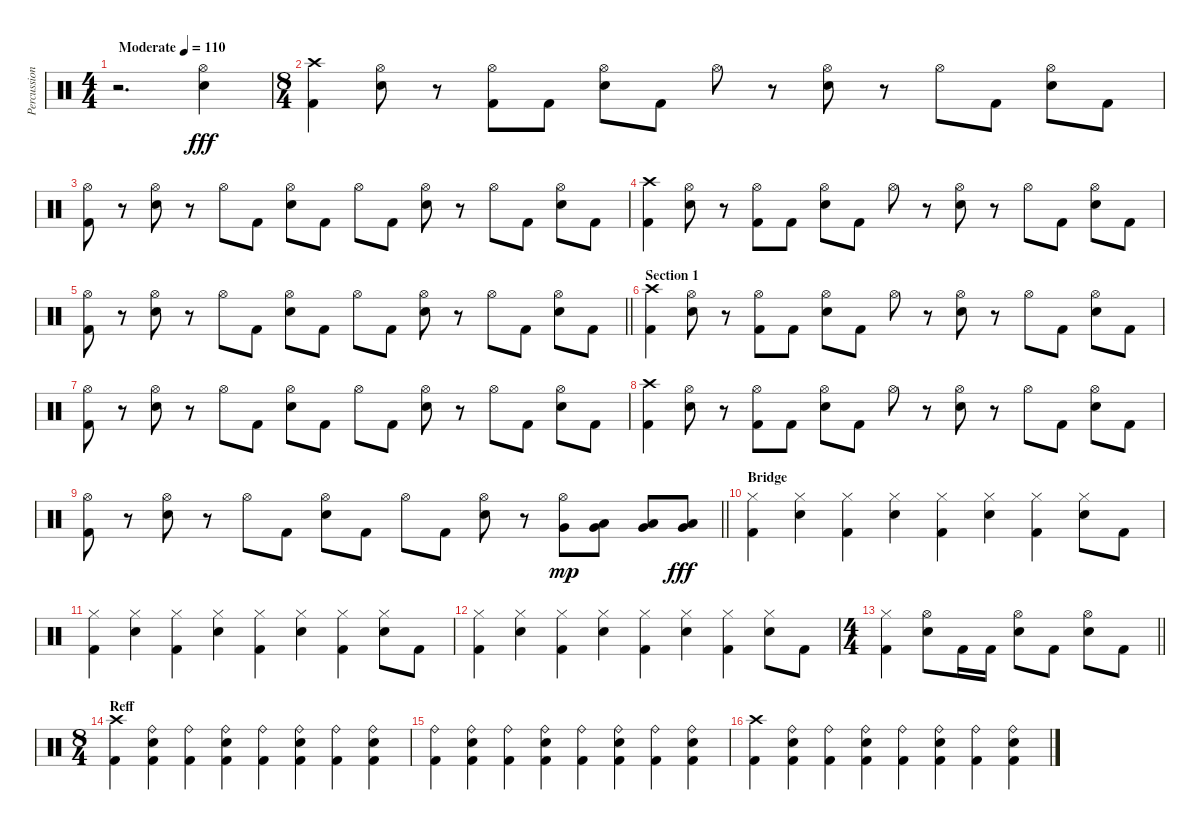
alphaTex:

\track ("Percussion" "Percussion") {instrument percussion}
\staff {score}
\articulation defaults
\ts (4 4)
\tempo (110 "Moderate")
\clef neutral
\ks c
r.2{d dy fff} ("Hi-Hat (open)" "Electric Snare (hit)").4 |
\ts (8 4)
("Crash high (hit)" "Kick (hit) 2").4 ("Hi-Hat (open)" "Electric Snare (hit)").8 r.8 ("Hi-Hat (open)" "Kick (hit) 2").8 "Kick (hit) 2".8 ("Hi-Hat (open)" "Electric Snare (hit)").8 "Kick (hit) 2".8 "Hi-Hat (open)".8 r.8 ("Hi-Hat (open)" "Electric Snare (hit)").8 r.8 "Hi-Hat (open)".8 "Kick (hit) 2".8 ("Hi-Hat (open)" "Electric Snare (hit)").8 "Kick (hit) 2".8 |
("Hi-Hat (open)" "Kick (hit) 2").8 r.8 ("Hi-Hat (open)" "Electric Snare (hit)").8 r.8 "Hi-Hat (open)".8 "Kick (hit) 2".8 ("Hi-Hat (open)" "Electric Snare (hit)").8 "Kick (hit) 2".8 "Hi-Hat (open)".8 "Kick (hit) 2".8 ("Hi-Hat (open)" "Electric Snare (hit)").8 r.8 "Hi-Hat (open)".8 "Kick (hit) 2".8 ("Hi-Hat (open)" "Electric Snare (hit)").8 "Kick (hit) 2".8 |
("Crash high (hit)" "Kick (hit) 2").4 ("Hi-Hat (open)" "Electric Snare (hit)").8 r.8 ("Hi-Hat (open)" "Kick (hit) 2").8 "Kick (hit) 2".8 ("Hi-Hat (open)" "Electric Snare (hit)").8 "Kick (hit) 2".8 "Hi-Hat (open)".8 r.8 ("Hi-Hat (open)" "Electric Snare (hit)").8 r.8 "Hi-Hat (open)".8 "Kick (hit) 2".8 ("Hi-Hat (open)" "Electric Snare (hit)").8 "Kick (hit) 2".8 |
\barLineRight lightlight
("Hi-Hat (open)" "Kick (hit) 2").8 r.8 ("Hi-Hat (open)" "Electric Snare (hit)").8 r.8 "Hi-Hat (open)".8 "Kick (hit) 2".8 ("Hi-Hat (open)" "Electric Snare (hit)").8 "Kick (hit) 2".8 "Hi-Hat (open)".8 "Kick (hit) 2".8 ("Hi-Hat (open)" "Electric Snare (hit)").8 r.8 "Hi-Hat (open)".8 "Kick (hit) 2".8 ("Hi-Hat (open)" "Electric Snare (hit)").8 "Kick (hit) 2".8 |
\section ("" "Section 1")
("Crash high (hit)" "Kick (hit) 2").4 ("Hi-Hat (open)" "Electric Snare (hit)").8 r.8 ("Hi-Hat (open)" "Kick (hit) 2").8 "Kick (hit) 2".8 ("Hi-Hat (open)" "Electric Snare (hit)").8 "Kick (hit) 2".8 "Hi-Hat (open)".8 r.8 ("Hi-Hat (open)" "Electric Snare (hit)").8 r.8 "Hi-Hat (open)".8 "Kick (hit) 2".8 ("Hi-Hat (open)" "Electric Snare (hit)").8 "Kick (hit) 2".8 |
("Hi-Hat (open)" "Kick (hit) 2").8 r.8 ("Hi-Hat (open)" "Electric Snare (hit)").8 r.8 "Hi-Hat (open)".8 "Kick (hit) 2".8 ("Hi-Hat (open)" "Electric Snare (hit)").8 "Kick (hit) 2".8 "Hi-Hat (open)".8 "Kick (hit) 2".8 ("Hi-Hat (open)" "Electric Snare (hit)").8 r.8 "Hi-Hat (open)".8 "Kick (hit) 2".8 ("Hi-Hat (open)" "Electric Snare (hit)").8 "Kick (hit) 2".8 |
("Crash high (hit)" "Kick (hit) 2").4 ("Hi-Hat (open)" "Electric Snare (hit)").8 r.8 ("Hi-Hat (open)" "Kick (hit) 2").8 "Kick (hit) 2".8 ("Hi-Hat (open)" "Electric Snare (hit)").8 "Kick (hit) 2".8 "Hi-Hat (open)".8 r.8 ("Hi-Hat (open)" "Electric Snare (hit)").8 r.8 "Hi-Hat (open)".8 "Kick (hit) 2".8 ("Hi-Hat (open)" "Electric Snare (hit)").8 "Kick (hit) 2".8 |
\barLineRight lightlight
("Hi-Hat (open)" "Kick (hit) 2").8 r.8 ("Hi-Hat (open)" "Electric Snare (hit)").8 r.8 "Hi-Hat (open)".8 "Kick (hit) 2".8 ("Hi-Hat (open)" "Electric Snare (hit)").8 "Kick (hit) 2".8 "Hi-Hat (open)".8 "Kick (hit) 2".8 ("Hi-Hat (open)" "Electric Snare (hit)").8 r.8 ("Hi-Hat (open)" "Very Low Tom (hit)").8{dy mp} ("Very Low Tom (hit)" "Low Tom (hit)").8 ("Very Low Tom (hit)" "Low Tom (hit)").8 ("Very Low Tom (hit)" "Low Tom (hit)").8{dy fff} |
\section ("" "Bridge")
("Hi-Hat (closed)" "Kick (hit) 2").4 ("Hi-Hat (closed)" "Electric Snare (hit)").4 ("Hi-Hat (closed)" "Kick (hit) 2").4 ("Hi-Hat (closed)" "Electric Snare (hit)").4 ("Hi-Hat (closed)" "Kick (hit) 2").4 ("Hi-Hat (closed)" "Electric Snare (hit)").4 ("Hi-Hat (closed)" "Kick (hit) 2").4 ("Hi-Hat (closed)" "Electric Snare (hit)").8 "Kick (hit) 2".8 |
("Hi-Hat (closed)" "Kick (hit) 2").4 ("Hi-Hat (closed)" "Electric Snare (hit)").4 ("Hi-Hat (closed)" "Kick (hit) 2").4 ("Hi-Hat (closed)" "Electric Snare (hit)").4 ("Hi-Hat (closed)" "Kick (hit) 2").4 ("Hi-Hat (closed)" "Electric Snare (hit)").4 ("Hi-Hat (closed)" "Kick (hit) 2").4 ("Hi-Hat (closed)" "Electric Snare (hit)").8 "Kick (hit) 2".8 |
("Hi-Hat (closed)" "Kick (hit) 2").4 ("Hi-Hat (closed)" "Electric Snare (hit)").4 ("Hi-Hat (closed)" "Kick (hit) 2").4 ("Hi-Hat (closed)" "Electric Snare (hit)").4 ("Hi-Hat (closed)" "Kick (hit) 2").4 ("Hi-Hat (closed)" "Electric Snare (hit)").4 ("Hi-Hat (closed)" "Kick (hit) 2").4 ("Hi-Hat (closed)" "Electric Snare (hit)").8 "Kick (hit) 2".8 |
\ts (4 4)
\barLineRight lightlight
("Hi-Hat (closed)" "Kick (hit) 2").4 ("Hi-Hat (open)" "Electric Snare (hit)").8 "Kick (hit) 2".16 "Kick (hit) 2".16 ("Hi-Hat (open)" "Electric Snare (hit)").8 "Kick (hit) 2".8 ("Hi-Hat (open)" "Electric Snare (hit)").8 "Kick (hit) 2".8 |
\ts (8 4)
\section ("" "Reff")
("Crash high (hit)" "Kick (hit) 2").4 ("Ride (bell)" "Electric Snare (hit)" "Kick (hit) 2").4 ("Ride (bell)" "Kick (hit) 2").4 ("Ride (bell)" "Electric Snare (hit)" "Kick (hit) 2").4 ("Ride (bell)" "Kick (hit) 2").4 ("Ride (bell)" "Electric Snare (hit)" "Kick (hit) 2").4 ("Ride (bell)" "Kick (hit) 2").4 ("Ride (bell)" "Electric Snare (hit)" "Kick (hit) 2").4 |
("Ride (bell)" "Kick (hit) 2").4 ("Ride (bell)" "Electric Snare (hit)" "Kick (hit) 2").4 ("Ride (bell)" "Kick (hit) 2").4 ("Ride (bell)" "Electric Snare (hit)" "Kick (hit) 2").4 ("Ride (bell)" "Kick (hit) 2").4 ("Ride (bell)" "Electric Snare (hit)" "Kick (hit) 2").4 ("Ride (bell)" "Kick (hit) 2").4 ("Ride (bell)" "Electric Snare (hit)" "Kick (hit) 2").4 |
("Crash high (hit)" "Kick (hit) 2").4 ("Ride (bell)" "Electric Snare (hit)" "Kick (hit) 2").4 ("Ride (bell)" "Kick (hit) 2").4 ("Ride (bell)" "Electric Snare (hit)" "Kick (hit) 2").4 ("Ride (bell)" "Kick (hit) 2").4 ("Ride (bell)" "Electric Snare (hit)" "Kick (hit) 2").4 ("Ride (bell)" "Kick (hit) 2").4 ("Ride (bell)" "Electric Snare (hit)" "Kick (hit) 2").4
